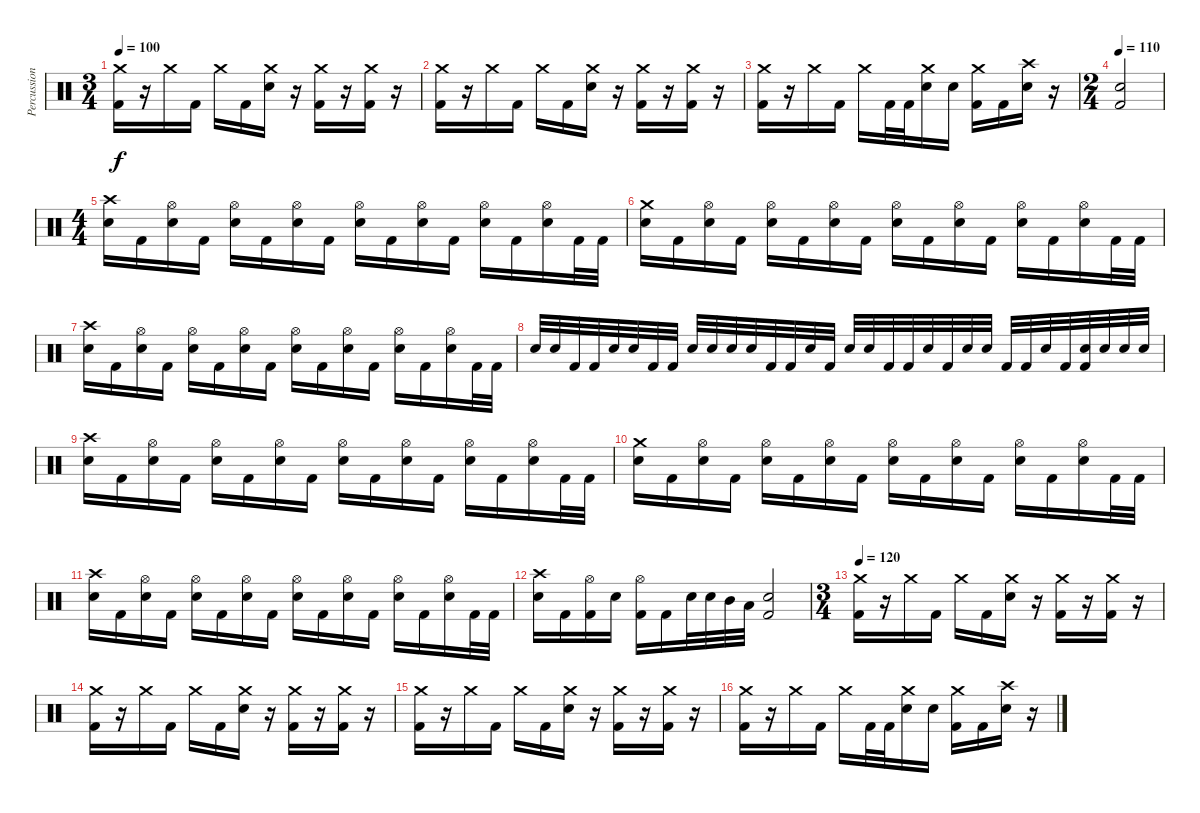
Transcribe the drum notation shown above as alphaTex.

\track ("Percussion" "Percussion") {instrument percussion}
\staff {score}
\articulation defaults
\ts (3 4)
\tempo 100
\clef neutral
\ks c
("Crash medium (hit)" "Kick (hit) 2").16{dy f} r.16 "Crash medium (hit)".16 "Kick (hit) 2".16 "Crash medium (hit)".16 "Kick (hit) 2".16 ("Crash medium (hit)" "Electric Snare (hit)").16 r.16 ("Crash medium (hit)" "Kick (hit) 2").16 r.16 ("Crash medium (hit)" "Kick (hit) 2").16 r.16 |
("Crash medium (hit)" "Kick (hit) 2").16 r.16 "Crash medium (hit)".16 "Kick (hit) 2".16 "Crash medium (hit)".16 "Kick (hit) 2".16 ("Crash medium (hit)" "Electric Snare (hit)").16 r.16 ("Crash medium (hit)" "Kick (hit) 2").16 r.16 ("Crash medium (hit)" "Kick (hit) 2").16 r.16 |
("Crash medium (hit)" "Kick (hit) 2").16 r.16 "Crash medium (hit)".16 "Kick (hit) 2".16 "Crash medium (hit)".16 "Kick (hit) 2".32 "Kick (hit) 2".32 ("Crash medium (hit)" "Electric Snare (hit)").16 "Electric Snare (hit)".16 ("Crash medium (hit)" "Kick (hit) 2").16 "Kick (hit) 2".16 ("Crash high (hit)" "Electric Snare (hit)").16 r.16 |
\ts (2 4)
\tempo 110
("Electric Snare (hit)" "Kick (hit) 2").2 |
\ts (4 4)
("Crash high (hit)" "Electric Snare (hit)").16 "Kick (hit) 2".16 ("Hi-Hat (open)" "Electric Snare (hit)").16 "Kick (hit) 2".16 ("Hi-Hat (open)" "Electric Snare (hit)").16 "Kick (hit) 2".16 ("Hi-Hat (open)" "Electric Snare (hit)").16 "Kick (hit) 2".16 ("Hi-Hat (open)" "Electric Snare (hit)").16 "Kick (hit) 2".16 ("Hi-Hat (open)" "Electric Snare (hit)").16 "Kick (hit) 2".16 ("Hi-Hat (open)" "Electric Snare (hit)").16 "Kick (hit) 2".16 ("Hi-Hat (open)" "Electric Snare (hit)").16 "Kick (hit) 2".32 "Kick (hit) 2".32 |
("Crash medium (hit)" "Electric Snare (hit)").16 "Kick (hit) 2".16 ("Hi-Hat (open)" "Electric Snare (hit)").16 "Kick (hit) 2".16 ("Hi-Hat (open)" "Electric Snare (hit)").16 "Kick (hit) 2".16 ("Hi-Hat (open)" "Electric Snare (hit)").16 "Kick (hit) 2".16 ("Hi-Hat (open)" "Electric Snare (hit)").16 "Kick (hit) 2".16 ("Hi-Hat (open)" "Electric Snare (hit)").16 "Kick (hit) 2".16 ("Hi-Hat (open)" "Electric Snare (hit)").16 "Kick (hit) 2".16 ("Hi-Hat (open)" "Electric Snare (hit)").16 "Kick (hit) 2".32 "Kick (hit) 2".32 |
("Crash high (hit)" "Electric Snare (hit)").16 "Kick (hit) 2".16 ("Hi-Hat (open)" "Electric Snare (hit)").16 "Kick (hit) 2".16 ("Hi-Hat (open)" "Electric Snare (hit)").16 "Kick (hit) 2".16 ("Hi-Hat (open)" "Electric Snare (hit)").16 "Kick (hit) 2".16 ("Hi-Hat (open)" "Electric Snare (hit)").16 "Kick (hit) 2".16 ("Hi-Hat (open)" "Electric Snare (hit)").16 "Kick (hit) 2".16 ("Hi-Hat (open)" "Electric Snare (hit)").16 "Kick (hit) 2".16 ("Hi-Hat (open)" "Electric Snare (hit)").16 "Kick (hit) 2".32 "Kick (hit) 2".32 |
"Electric Snare (hit)".32 "Electric Snare (hit)".32 "Kick (hit) 2".32 "Kick (hit) 2".32 "Electric Snare (hit)".32 "Electric Snare (hit)".32 "Kick (hit) 2".32 "Kick (hit) 2".32 "Electric Snare (hit)".32 "Electric Snare (hit)".32 "Electric Snare (hit)".32 "Electric Snare (hit)".32 "Kick (hit) 2".32 "Kick (hit) 2".32 "Electric Snare (hit)".32 "Kick (hit) 2".32 "Electric Snare (hit)".32 "Electric Snare (hit)".32 "Kick (hit) 2".32 "Kick (hit) 2".32 "Electric Snare (hit)".32 "Kick (hit) 2".32 "Electric Snare (hit)".32 "Electric Snare (hit)".32 "Kick (hit) 2".32 "Kick (hit) 2".32 "Electric Snare (hit)".32 "Kick (hit) 2".32 ("Electric Snare (hit)" "Kick (hit) 2").32 "Electric Snare (hit)".32 "Electric Snare (hit)".32 "Electric Snare (hit)".32 |
("Crash high (hit)" "Electric Snare (hit)").16 "Kick (hit) 2".16 ("Hi-Hat (open)" "Electric Snare (hit)").16 "Kick (hit) 2".16 ("Hi-Hat (open)" "Electric Snare (hit)").16 "Kick (hit) 2".16 ("Hi-Hat (open)" "Electric Snare (hit)").16 "Kick (hit) 2".16 ("Hi-Hat (open)" "Electric Snare (hit)").16 "Kick (hit) 2".16 ("Hi-Hat (open)" "Electric Snare (hit)").16 "Kick (hit) 2".16 ("Hi-Hat (open)" "Electric Snare (hit)").16 "Kick (hit) 2".16 ("Hi-Hat (open)" "Electric Snare (hit)").16 "Kick (hit) 2".32 "Kick (hit) 2".32 |
("Crash medium (hit)" "Electric Snare (hit)").16 "Kick (hit) 2".16 ("Hi-Hat (open)" "Electric Snare (hit)").16 "Kick (hit) 2".16 ("Hi-Hat (open)" "Electric Snare (hit)").16 "Kick (hit) 2".16 ("Hi-Hat (open)" "Electric Snare (hit)").16 "Kick (hit) 2".16 ("Hi-Hat (open)" "Electric Snare (hit)").16 "Kick (hit) 2".16 ("Hi-Hat (open)" "Electric Snare (hit)").16 "Kick (hit) 2".16 ("Hi-Hat (open)" "Electric Snare (hit)").16 "Kick (hit) 2".16 ("Hi-Hat (open)" "Electric Snare (hit)").16 "Kick (hit) 2".32 "Kick (hit) 2".32 |
("Crash high (hit)" "Electric Snare (hit)").16 "Kick (hit) 2".16 ("Hi-Hat (open)" "Electric Snare (hit)").16 "Kick (hit) 2".16 ("Hi-Hat (open)" "Electric Snare (hit)").16 "Kick (hit) 2".16 ("Hi-Hat (open)" "Electric Snare (hit)").16 "Kick (hit) 2".16 ("Hi-Hat (open)" "Electric Snare (hit)").16 "Kick (hit) 2".16 ("Hi-Hat (open)" "Electric Snare (hit)").16 "Kick (hit) 2".16 ("Hi-Hat (open)" "Electric Snare (hit)").16 "Kick (hit) 2".16 ("Hi-Hat (open)" "Electric Snare (hit)").16 "Kick (hit) 2".32 "Kick (hit) 2".32 |
("Crash high (hit)" "Electric Snare (hit)").16 "Kick (hit) 2".16 ("Hi-Hat (open)" "Kick (hit) 2").16 "Electric Snare (hit)".16 ("Hi-Hat (open)" "Kick (hit) 2").16 "Kick (hit) 2".16 "Electric Snare (hit)".32 "Electric Snare (hit)".32 "Mid Tom (hit)".32 "Low Tom (hit)".32 ("Electric Snare (hit)" "Kick (hit) 2").2 |
\ts (3 4)
\tempo 120
("Crash medium (hit)" "Kick (hit) 2").16 r.16 "Crash medium (hit)".16 "Kick (hit) 2".16 "Crash medium (hit)".16 "Kick (hit) 2".16 ("Crash medium (hit)" "Electric Snare (hit)").16 r.16 ("Crash medium (hit)" "Kick (hit) 2").16 r.16 ("Crash medium (hit)" "Kick (hit) 2").16 r.16 |
("Crash medium (hit)" "Kick (hit) 2").16 r.16 "Crash medium (hit)".16 "Kick (hit) 2".16 "Crash medium (hit)".16 "Kick (hit) 2".16 ("Crash medium (hit)" "Electric Snare (hit)").16 r.16 ("Crash medium (hit)" "Kick (hit) 2").16 r.16 ("Crash medium (hit)" "Kick (hit) 2").16 r.16 |
("Crash medium (hit)" "Kick (hit) 2").16 r.16 "Crash medium (hit)".16 "Kick (hit) 2".16 "Crash medium (hit)".16 "Kick (hit) 2".16 ("Crash medium (hit)" "Electric Snare (hit)").16 r.16 ("Crash medium (hit)" "Kick (hit) 2").16 r.16 ("Crash medium (hit)" "Kick (hit) 2").16 r.16 |
("Crash medium (hit)" "Kick (hit) 2").16 r.16 "Crash medium (hit)".16 "Kick (hit) 2".16 "Crash medium (hit)".16 "Kick (hit) 2".32 "Kick (hit) 2".32 ("Crash medium (hit)" "Electric Snare (hit)").16 "Electric Snare (hit)".16 ("Crash medium (hit)" "Kick (hit) 2").16 "Kick (hit) 2".16 ("Crash high (hit)" "Electric Snare (hit)").16 r.16
